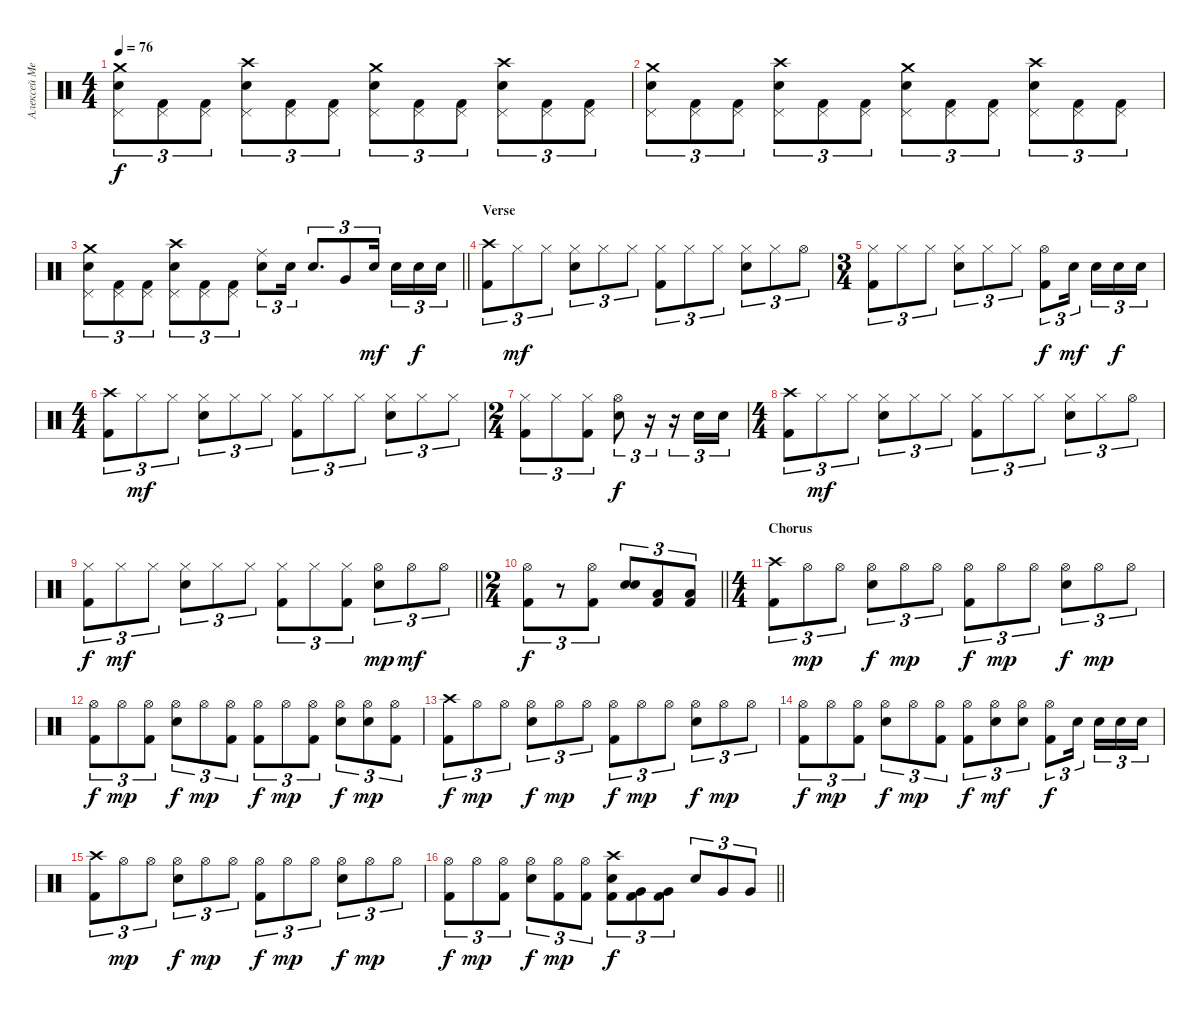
\track ("Алексей Мещеряков" "Алексей Ме") {instrument percussion}
\staff {score}
\articulation defaults
\ts (4 4)
\tempo 76
\clef neutral
\ks c
("Crash medium (hit)" "Pedal Hi-Hat (hit)" "Electric Snare (hit)").8{tu (3 2) dy f} ("Pedal Hi-Hat (hit)" "Kick (hit) 2").8{tu (3 2)} ("Pedal Hi-Hat (hit)" "Kick (hit) 2").8{tu (3 2)} ("Crash high (hit)" "Pedal Hi-Hat (hit)" "Electric Snare (hit)").8{tu (3 2)} ("Pedal Hi-Hat (hit)" "Kick (hit) 2").8{tu (3 2)} ("Pedal Hi-Hat (hit)" "Kick (hit) 2").8{tu (3 2)} ("Crash medium (hit)" "Pedal Hi-Hat (hit)" "Electric Snare (hit)").8{tu (3 2)} ("Pedal Hi-Hat (hit)" "Kick (hit) 2").8{tu (3 2)} ("Pedal Hi-Hat (hit)" "Kick (hit) 2").8{tu (3 2)} ("Crash high (hit)" "Pedal Hi-Hat (hit)" "Electric Snare (hit)").8{tu (3 2)} ("Pedal Hi-Hat (hit)" "Kick (hit) 2").8{tu (3 2)} ("Pedal Hi-Hat (hit)" "Kick (hit) 2").8{tu (3 2)} |
("Crash medium (hit)" "Pedal Hi-Hat (hit)" "Electric Snare (hit)").8{tu (3 2)} ("Pedal Hi-Hat (hit)" "Kick (hit) 2").8{tu (3 2)} ("Pedal Hi-Hat (hit)" "Kick (hit) 2").8{tu (3 2)} ("Crash high (hit)" "Pedal Hi-Hat (hit)" "Electric Snare (hit)").8{tu (3 2)} ("Pedal Hi-Hat (hit)" "Kick (hit) 2").8{tu (3 2)} ("Pedal Hi-Hat (hit)" "Kick (hit) 2").8{tu (3 2)} ("Crash medium (hit)" "Pedal Hi-Hat (hit)" "Electric Snare (hit)").8{tu (3 2)} ("Pedal Hi-Hat (hit)" "Kick (hit) 2").8{tu (3 2)} ("Pedal Hi-Hat (hit)" "Kick (hit) 2").8{tu (3 2)} ("Crash high (hit)" "Pedal Hi-Hat (hit)" "Electric Snare (hit)").8{tu (3 2)} ("Pedal Hi-Hat (hit)" "Kick (hit) 2").8{tu (3 2)} ("Pedal Hi-Hat (hit)" "Kick (hit) 2").8{tu (3 2)} |
\barLineRight lightlight
("Crash medium (hit)" "Pedal Hi-Hat (hit)" "Electric Snare (hit)").8{tu (3 2)} ("Pedal Hi-Hat (hit)" "Kick (hit) 2").8{tu (3 2)} ("Pedal Hi-Hat (hit)" "Kick (hit) 2").8{tu (3 2)} ("Crash high (hit)" "Pedal Hi-Hat (hit)" "Electric Snare (hit)").8{tu (3 2)} ("Pedal Hi-Hat (hit)" "Kick (hit) 2").8{tu (3 2)} ("Pedal Hi-Hat (hit)" "Kick (hit) 2").8{tu (3 2)} ("Ride (middle)" "Electric Snare (hit)").8{tu (3 2)} "Electric Snare (hit)".16{tu (3 2)} "Electric Snare (hit)".8{d tu (3 2)} "Very Low Tom (hit)".8{tu (3 2)} "Electric Snare (hit)".16{tu (3 2) dy mf beam splitsecondary} "Electric Snare (hit)".16{tu (3 2)} "Electric Snare (hit)".16{tu (3 2) dy f} "Electric Snare (hit)".16{tu (3 2)} |
\section ("" "Verse")
("Crash high (hit)" "Kick (hit) 2").8{tu (3 2)} "Hi-Hat (closed)".8{tu (3 2) dy mf} "Hi-Hat (closed)".8{tu (3 2)} ("Hi-Hat (closed)" "Electric Snare (hit)").8{tu (3 2)} "Hi-Hat (closed)".8{tu (3 2)} "Hi-Hat (closed)".8{tu (3 2)} ("Hi-Hat (closed)" "Kick (hit) 2").8{tu (3 2)} "Hi-Hat (closed)".8{tu (3 2)} "Hi-Hat (closed)".8{tu (3 2)} ("Hi-Hat (closed)" "Electric Snare (hit)").8{tu (3 2)} "Hi-Hat (closed)".8{tu (3 2)} "Hi-Hat (open)".8{tu (3 2)} |
\ts (3 4)
("Hi-Hat (closed)" "Kick (hit) 2").8{tu (3 2)} "Hi-Hat (closed)".8{tu (3 2)} "Hi-Hat (closed)".8{tu (3 2)} ("Hi-Hat (closed)" "Electric Snare (hit)").8{tu (3 2)} "Hi-Hat (closed)".8{tu (3 2)} "Hi-Hat (closed)".8{tu (3 2)} ("Hi-Hat (open)" "Kick (hit) 2").8{tu (3 2) dy f} "Electric Snare (hit)".16{tu (3 2) dy mf beam splitsecondary} "Electric Snare (hit)".16{tu (3 2)} "Electric Snare (hit)".16{tu (3 2) dy f} "Electric Snare (hit)".16{tu (3 2)} |
\ts (4 4)
("Crash high (hit)" "Kick (hit) 2").8{tu (3 2)} "Hi-Hat (closed)".8{tu (3 2) dy mf} "Hi-Hat (closed)".8{tu (3 2)} ("Hi-Hat (closed)" "Electric Snare (hit)").8{tu (3 2)} "Hi-Hat (closed)".8{tu (3 2)} "Hi-Hat (closed)".8{tu (3 2)} ("Hi-Hat (closed)" "Kick (hit) 2").8{tu (3 2)} "Hi-Hat (closed)".8{tu (3 2)} "Hi-Hat (closed)".8{tu (3 2)} ("Hi-Hat (closed)" "Electric Snare (hit)").8{tu (3 2)} "Hi-Hat (closed)".8{tu (3 2)} "Hi-Hat (closed)".8{tu (3 2)} |
\ts (2 4)
("Hi-Hat (closed)" "Kick (hit) 2").8{tu (3 2)} "Hi-Hat (closed)".8{tu (3 2)} ("Hi-Hat (closed)" "Kick (hit) 2").8{tu (3 2)} ("Hi-Hat (open)" "Electric Snare (hit)").8{tu (3 2) dy f} r.16{tu (3 2)} r.16{tu (3 2)} "Electric Snare (hit)".16{tu (3 2)} "Electric Snare (hit)".16{tu (3 2)} |
\ts (4 4)
("Crash high (hit)" "Kick (hit) 2").8{tu (3 2)} "Hi-Hat (closed)".8{tu (3 2) dy mf} "Hi-Hat (closed)".8{tu (3 2)} ("Hi-Hat (closed)" "Electric Snare (hit)").8{tu (3 2)} "Hi-Hat (closed)".8{tu (3 2)} "Hi-Hat (closed)".8{tu (3 2)} ("Hi-Hat (closed)" "Kick (hit) 2").8{tu (3 2)} "Hi-Hat (closed)".8{tu (3 2)} "Hi-Hat (closed)".8{tu (3 2)} ("Hi-Hat (closed)" "Electric Snare (hit)").8{tu (3 2)} "Hi-Hat (closed)".8{tu (3 2)} "Hi-Hat (open)".8{tu (3 2)} |
\barLineRight lightlight
("Hi-Hat (closed)" "Kick (hit) 2").8{tu (3 2) dy f} "Hi-Hat (closed)".8{tu (3 2) dy mf} "Hi-Hat (closed)".8{tu (3 2)} ("Hi-Hat (closed)" "Electric Snare (hit)").8{tu (3 2)} "Hi-Hat (closed)".8{tu (3 2)} "Hi-Hat (closed)".8{tu (3 2)} ("Hi-Hat (closed)" "Kick (hit) 2").8{tu (3 2)} "Hi-Hat (closed)".8{tu (3 2)} ("Hi-Hat (closed)" "Kick (hit) 2").8{tu (3 2)} ("Hi-Hat (open)" "Electric Snare (hit)").8{tu (3 2) dy mp} "Hi-Hat (open)".8{tu (3 2) dy mf} "Hi-Hat (open)".8{tu (3 2)} |
\ts (2 4)
\barLineRight lightlight
("Hi-Hat (open)" "Kick (hit) 2").8{tu (3 2) dy f} r.8{tu (3 2)} ("Hi-Hat (open)" "Kick (hit) 2").8{tu (3 2)} ("Electric Snare (hit)" "Electric Snare (hit)").8{tu (3 2)} ("Low Floor Tom (hit)" "Kick (hit) 2").8{tu (3 2)} ("Low Floor Tom (hit)" "Kick (hit) 2").8{tu (3 2)} |
\ts (4 4)
\section ("" "Chorus")
("Crash high (hit)" "Kick (hit) 2").8{tu (3 2)} "Hi-Hat (open)".8{tu (3 2) dy mp} "Hi-Hat (open)".8{tu (3 2)} ("Hi-Hat (open)" "Electric Snare (hit)").8{tu (3 2) dy f} "Hi-Hat (open)".8{tu (3 2) dy mp} "Hi-Hat (open)".8{tu (3 2)} ("Hi-Hat (open)" "Kick (hit) 2").8{tu (3 2) dy f} "Hi-Hat (open)".8{tu (3 2) dy mp} "Hi-Hat (open)".8{tu (3 2)} ("Hi-Hat (open)" "Electric Snare (hit)").8{tu (3 2) dy f} "Hi-Hat (open)".8{tu (3 2) dy mp} "Hi-Hat (open)".8{tu (3 2)} |
("Hi-Hat (open)" "Kick (hit) 2").8{tu (3 2) dy f} "Hi-Hat (open)".8{tu (3 2) dy mp} ("Hi-Hat (open)" "Kick (hit) 2").8{tu (3 2)} ("Hi-Hat (open)" "Electric Snare (hit)").8{tu (3 2) dy f} "Hi-Hat (open)".8{tu (3 2) dy mp} ("Hi-Hat (open)" "Kick (hit) 2").8{tu (3 2)} ("Hi-Hat (open)" "Kick (hit) 2").8{tu (3 2) dy f} "Hi-Hat (open)".8{tu (3 2) dy mp} ("Hi-Hat (open)" "Kick (hit) 2").8{tu (3 2)} ("Hi-Hat (open)" "Electric Snare (hit)").8{tu (3 2) dy f} ("Hi-Hat (open)" "Electric Snare (hit)").8{tu (3 2) dy mp} ("Hi-Hat (open)" "Kick (hit) 2").8{tu (3 2)} |
("Crash high (hit)" "Kick (hit) 2").8{tu (3 2) dy f} "Hi-Hat (open)".8{tu (3 2) dy mp} "Hi-Hat (open)".8{tu (3 2)} ("Hi-Hat (open)" "Electric Snare (hit)").8{tu (3 2) dy f} "Hi-Hat (open)".8{tu (3 2) dy mp} "Hi-Hat (open)".8{tu (3 2)} ("Hi-Hat (open)" "Kick (hit) 2").8{tu (3 2) dy f} "Hi-Hat (open)".8{tu (3 2) dy mp} "Hi-Hat (open)".8{tu (3 2)} ("Hi-Hat (open)" "Electric Snare (hit)").8{tu (3 2) dy f} "Hi-Hat (open)".8{tu (3 2) dy mp} "Hi-Hat (open)".8{tu (3 2)} |
("Hi-Hat (open)" "Kick (hit) 2").8{tu (3 2) dy f} "Hi-Hat (open)".8{tu (3 2) dy mp} ("Hi-Hat (open)" "Kick (hit) 2").8{tu (3 2)} ("Hi-Hat (open)" "Electric Snare (hit)").8{tu (3 2) dy f} "Hi-Hat (open)".8{tu (3 2) dy mp} ("Hi-Hat (open)" "Kick (hit) 2").8{tu (3 2)} ("Hi-Hat (open)" "Kick (hit) 2").8{tu (3 2) dy f} ("Hi-Hat (open)" "Electric Snare (hit)").8{tu (3 2) dy mf} ("Hi-Hat (open)" "Electric Snare (hit)").8{tu (3 2)} ("Hi-Hat (open)" "Kick (hit) 2").8{tu (3 2) dy f} "Electric Snare (hit)".16{tu (3 2) beam splitsecondary} "Electric Snare (hit)".16{tu (3 2)} "Electric Snare (hit)".16{tu (3 2)} "Electric Snare (hit)".16{tu (3 2)} |
("Crash high (hit)" "Kick (hit) 2").8{tu (3 2)} "Hi-Hat (open)".8{tu (3 2) dy mp} "Hi-Hat (open)".8{tu (3 2)} ("Hi-Hat (open)" "Electric Snare (hit)").8{tu (3 2) dy f} "Hi-Hat (open)".8{tu (3 2) dy mp} "Hi-Hat (open)".8{tu (3 2)} ("Hi-Hat (open)" "Kick (hit) 2").8{tu (3 2) dy f} "Hi-Hat (open)".8{tu (3 2) dy mp} "Hi-Hat (open)".8{tu (3 2)} ("Hi-Hat (open)" "Electric Snare (hit)").8{tu (3 2) dy f} "Hi-Hat (open)".8{tu (3 2) dy mp} "Hi-Hat (open)".8{tu (3 2)} |
\barLineRight lightlight
("Hi-Hat (open)" "Kick (hit) 2").8{tu (3 2) dy f} "Hi-Hat (open)".8{tu (3 2) dy mp} ("Hi-Hat (open)" "Kick (hit) 2").8{tu (3 2)} ("Hi-Hat (open)" "Electric Snare (hit)").8{tu (3 2) dy f} ("Hi-Hat (open)" "Kick (hit) 2").8{tu (3 2) dy mp} ("Hi-Hat (open)" "Kick (hit) 2").8{tu (3 2)} ("Crash high (hit)" "Electric Snare (hit)" "Kick (hit) 2").8{tu (3 2) dy f} ("Very Low Tom (hit)" "Kick (hit) 2").8{tu (3 2)} ("Very Low Tom (hit)" "Kick (hit) 2").8{tu (3 2)} "Electric Snare (hit)".8{tu (3 2)} "Very Low Tom (hit)".8{tu (3 2)} "Very Low Tom (hit)".8{tu (3 2)}
